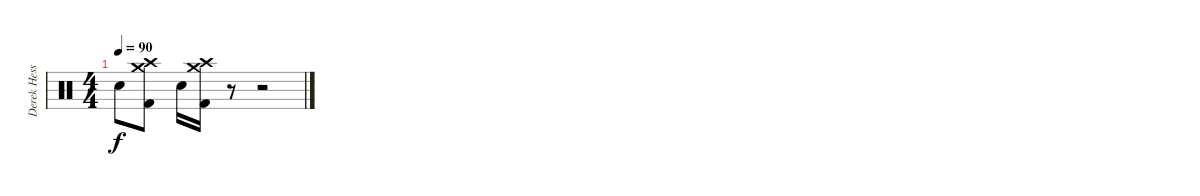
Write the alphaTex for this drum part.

\track ("Derek Hess (Drums and Percussion)" "Derek Hess") {instrument percussion}
\staff {score}
\articulation defaults
\ts (4 4)
\tempo 90
\clef neutral
\ks c "Snare (hit) 2".8{dy f}
("Crash medium (hit)" "Crash high (hit)" "Kick (hit) 2").8 "Snare (hit) 2".16 ("Crash medium (hit)" "Crash high (hit)" "Kick (hit) 2").16 r.8 r.2
